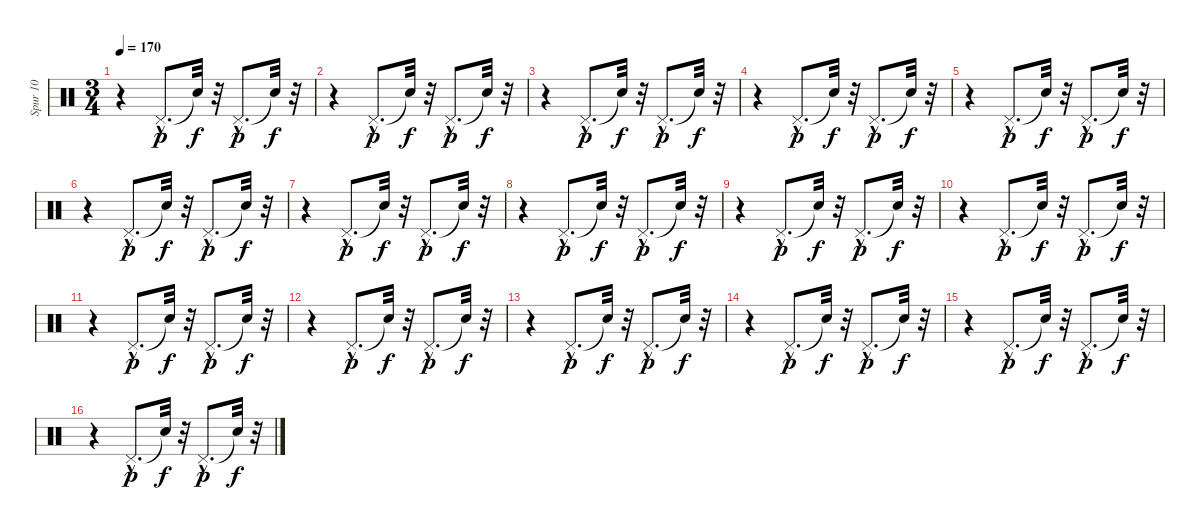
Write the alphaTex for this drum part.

\track ("Spur 10" "Spur 10") {instrument percussion}
\staff {score}
\articulation defaults
\ts (3 4)
\tempo 170
\clef neutral
\ks c
r.4{dy p} "Pedal Hi-Hat (hit)"{hac}.8{d} "Snare (hit)"{t}.32{dy f} r.32 "Pedal Hi-Hat (hit)"{hac}.8{d dy p} "Snare (hit)"{t}.32{dy f} r.32 |
r.4 "Pedal Hi-Hat (hit)"{hac}.8{d dy p} "Snare (hit)"{t}.32{dy f} r.32 "Pedal Hi-Hat (hit)"{hac}.8{d dy p} "Snare (hit)"{t}.32{dy f} r.32 |
r.4 "Pedal Hi-Hat (hit)"{hac}.8{d dy p} "Snare (hit)"{t}.32{dy f} r.32 "Pedal Hi-Hat (hit)"{hac}.8{d dy p} "Snare (hit)"{t}.32{dy f} r.32 |
r.4 "Pedal Hi-Hat (hit)"{hac}.8{d dy p} "Snare (hit)"{t}.32{dy f} r.32 "Pedal Hi-Hat (hit)"{hac}.8{d dy p} "Snare (hit)"{t}.32{dy f} r.32 |
r.4 "Pedal Hi-Hat (hit)"{hac}.8{d dy p} "Snare (hit)"{t}.32{dy f} r.32 "Pedal Hi-Hat (hit)"{hac}.8{d dy p} "Snare (hit)"{t}.32{dy f} r.32 |
r.4 "Pedal Hi-Hat (hit)"{hac}.8{d dy p} "Snare (hit)"{t}.32{dy f} r.32 "Pedal Hi-Hat (hit)"{hac}.8{d dy p} "Snare (hit)"{t}.32{dy f} r.32 |
r.4 "Pedal Hi-Hat (hit)"{hac}.8{d dy p} "Snare (hit)"{t}.32{dy f} r.32 "Pedal Hi-Hat (hit)"{hac}.8{d dy p} "Snare (hit)"{t}.32{dy f} r.32 |
r.4 "Pedal Hi-Hat (hit)"{hac}.8{d dy p} "Snare (hit)"{t}.32{dy f} r.32 "Pedal Hi-Hat (hit)"{hac}.8{d dy p} "Snare (hit)"{t}.32{dy f} r.32 |
r.4 "Pedal Hi-Hat (hit)"{hac}.8{d dy p} "Snare (hit)"{t}.32{dy f} r.32 "Pedal Hi-Hat (hit)"{hac}.8{d dy p} "Snare (hit)"{t}.32{dy f} r.32 |
r.4 "Pedal Hi-Hat (hit)"{hac}.8{d dy p} "Snare (hit)"{t}.32{dy f} r.32 "Pedal Hi-Hat (hit)"{hac}.8{d dy p} "Snare (hit)"{t}.32{dy f} r.32 |
r.4 "Pedal Hi-Hat (hit)"{hac}.8{d dy p} "Snare (hit)"{t}.32{dy f} r.32 "Pedal Hi-Hat (hit)"{hac}.8{d dy p} "Snare (hit)"{t}.32{dy f} r.32 |
r.4 "Pedal Hi-Hat (hit)"{hac}.8{d dy p} "Snare (hit)"{t}.32{dy f} r.32 "Pedal Hi-Hat (hit)"{hac}.8{d dy p} "Snare (hit)"{t}.32{dy f} r.32 |
r.4 "Pedal Hi-Hat (hit)"{hac}.8{d dy p} "Snare (hit)"{t}.32{dy f} r.32 "Pedal Hi-Hat (hit)"{hac}.8{d dy p} "Snare (hit)"{t}.32{dy f} r.32 |
r.4 "Pedal Hi-Hat (hit)"{hac}.8{d dy p} "Snare (hit)"{t}.32{dy f} r.32 "Pedal Hi-Hat (hit)"{hac}.8{d dy p} "Snare (hit)"{t}.32{dy f} r.32 |
r.4 "Pedal Hi-Hat (hit)"{hac}.8{d dy p} "Snare (hit)"{t}.32{dy f} r.32 "Pedal Hi-Hat (hit)"{hac}.8{d dy p} "Snare (hit)"{t}.32{dy f} r.32 |
r.4 "Pedal Hi-Hat (hit)"{hac}.8{d dy p} "Snare (hit)"{t}.32{dy f} r.32 "Pedal Hi-Hat (hit)"{hac}.8{d dy p} "Snare (hit)"{t}.32{dy f} r.32
